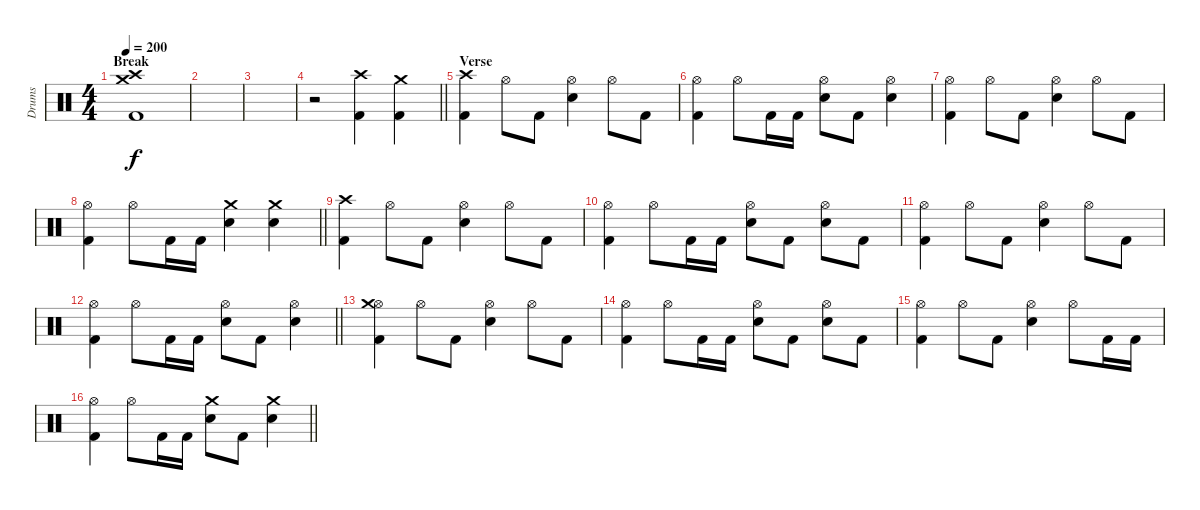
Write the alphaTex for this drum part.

\track ("Drums" "Drums") {instrument percussion}
\staff {score}
\articulation defaults
\ts (4 4)
\section ("" "Break")
\tempo 200
\clef neutral
\ks c
("Kick (hit) 2" "Crash medium (hit)" "Crash high (hit)").1{dy f} |
|
|
\barLineRight lightlight
r.2 ("Kick (hit) 2" "Crash high (hit)").4 ("Kick (hit) 2" "Crash medium (hit)").4 |
\section ("" "Verse")
("Kick (hit) 2" "Crash high (hit)").4 "Hi-Hat (open)".8 "Kick (hit) 2".8 ("Snare (hit) 2" "Hi-Hat (open)").4 "Hi-Hat (open)".8 "Kick (hit) 2".8 |
("Kick (hit) 2" "Hi-Hat (open)").4 "Hi-Hat (open)".8 "Kick (hit) 2".16 "Kick (hit) 2".16 ("Snare (hit) 2" "Hi-Hat (open)").8 "Kick (hit) 2".8 ("Snare (hit) 2" "Hi-Hat (open)").4 |
("Kick (hit) 2" "Hi-Hat (open)").4 "Hi-Hat (open)".8 "Kick (hit) 2".8 ("Snare (hit) 2" "Hi-Hat (open)").4 "Hi-Hat (open)".8 "Kick (hit) 2".8 |
\barLineRight lightlight
("Kick (hit) 2" "Hi-Hat (open)").4 "Hi-Hat (open)".8 "Kick (hit) 2".16 "Kick (hit) 2".16 ("Snare (hit) 2" "Crash medium (hit)").4 ("Snare (hit) 2" "Crash medium (hit)").4 |
\section ("" "")
("Kick (hit) 2" "Crash high (hit)").4 "Hi-Hat (open)".8 "Kick (hit) 2".8 ("Snare (hit) 2" "Hi-Hat (open)").4 "Hi-Hat (open)".8 "Kick (hit) 2".8 |
("Kick (hit) 2" "Hi-Hat (open)").4 "Hi-Hat (open)".8 "Kick (hit) 2".16 "Kick (hit) 2".16 ("Snare (hit) 2" "Hi-Hat (open)").8 "Kick (hit) 2".8 ("Snare (hit) 2" "Hi-Hat (open)").8 "Kick (hit) 2".8 |
("Kick (hit) 2" "Hi-Hat (open)").4 "Hi-Hat (open)".8 "Kick (hit) 2".8 ("Snare (hit) 2" "Hi-Hat (open)").4 "Hi-Hat (open)".8 "Kick (hit) 2".8 |
\barLineRight lightlight
("Kick (hit) 2" "Hi-Hat (open)").4 "Hi-Hat (open)".8 "Kick (hit) 2".16 "Kick (hit) 2".16 ("Snare (hit) 2" "Hi-Hat (open)").8 "Kick (hit) 2".8 ("Snare (hit) 2" "Hi-Hat (open)").4 |
\section ("" "")
("Kick (hit) 2" "Hi-Hat (open)" "Crash medium (hit)").4 "Hi-Hat (open)".8 "Kick (hit) 2".8 ("Snare (hit) 2" "Hi-Hat (open)").4 "Hi-Hat (open)".8 "Kick (hit) 2".8 |
("Kick (hit) 2" "Hi-Hat (open)").4 "Hi-Hat (open)".8 "Kick (hit) 2".16 "Kick (hit) 2".16 ("Snare (hit) 2" "Hi-Hat (open)").8 "Kick (hit) 2".8 ("Snare (hit) 2" "Hi-Hat (open)").8 "Kick (hit) 2".8 |
("Kick (hit) 2" "Hi-Hat (open)").4 "Hi-Hat (open)".8 "Kick (hit) 2".8 ("Snare (hit) 2" "Hi-Hat (open)").4 "Hi-Hat (open)".8 "Kick (hit) 2".16 "Kick (hit) 2".16 |
\barLineRight lightlight
("Kick (hit) 2" "Hi-Hat (open)").4 "Hi-Hat (open)".8 "Kick (hit) 2".16 "Kick (hit) 2".16 ("Snare (hit) 2" "Crash medium (hit)").8 "Kick (hit) 2".8 ("Snare (hit) 2" "Crash medium (hit)").4
